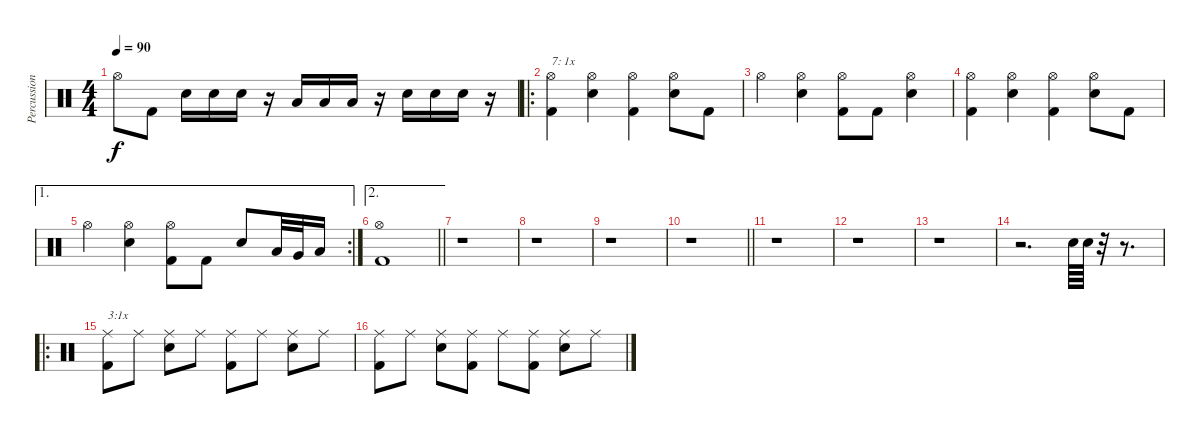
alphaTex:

\track ("Percussion" "Percussion") {instrument percussion}
\staff {score}
\articulation defaults
\ts (4 4)
\tempo 90
\clef neutral
\ks c "Hi-Hat (open)".8{dy f} "Kick (hit) 2".8 "Electric Snare (hit)".16 "Electric Snare (hit)".16 "Electric Snare (hit)".16
r.16 "Low Tom (hit)".16 "Low Tom (hit)".16 "Low Tom (hit)".16 r.16 "Electric Snare (hit)".16 "Electric Snare (hit)".16 "Electric Snare (hit)".16 r.16 |
\ro
("Kick (hit) 2" "Hi-Hat (open)").4{txt "7: 1x"} ("Electric Snare (hit)" "Hi-Hat (open)").4 ("Kick (hit) 2" "Hi-Hat (open)").4 ("Electric Snare (hit)" "Hi-Hat (open)").8 "Kick (hit) 2".8 |
"Hi-Hat (open)".4 ("Electric Snare (hit)" "Hi-Hat (open)").4 ("Kick (hit) 2" "Hi-Hat (open)").8 "Kick (hit) 2".8 ("Electric Snare (hit)" "Hi-Hat (open)").4 |
("Kick (hit) 2" "Hi-Hat (open)").4 ("Electric Snare (hit)" "Hi-Hat (open)").4 ("Kick (hit) 2" "Hi-Hat (open)").4 ("Electric Snare (hit)" "Hi-Hat (open)").8 "Kick (hit) 2".8 |
\ae 1
\rc 2 "Hi-Hat (open)".4
("Electric Snare (hit)" "Hi-Hat (open)").4 ("Kick (hit) 2" "Hi-Hat (open)").8 "Kick (hit) 2".8 "Electric Snare (hit)".8 "Low Tom (hit)".32 "Very Low Tom (hit)".32 "Low Floor Tom (hit)".16 |
\ae 2
\barLineRight lightlight
("Hi-Hat (open)" "Kick (hit) 2").1 |
r.1 |
r.1 |
r.1 |
\barLineRight lightlight
r.1 |
r.1 |
r.1 |
r.1 |
r.2{d} "Electric Snare (hit)".64 "Electric Snare (hit)".64 r.32 r.8{d} |
\ro
("Kick (hit) 2" "Ride (middle)").8{txt "3:1x"} "Ride (middle)".8 ("Electric Snare (hit)" "Ride (middle)").8 "Ride (middle)".8 ("Kick (hit) 2" "Ride (middle)").8 "Ride (middle)".8 ("Electric Snare (hit)" "Ride (middle)").8 "Ride (middle)".8 |
("Kick (hit) 2" "Ride (middle)").8 "Ride (middle)".8 ("Electric Snare (hit)" "Ride (middle)").8 ("Kick (hit) 2" "Ride (middle)").8 "Ride (middle)".8 ("Kick (hit) 2" "Ride (middle)").8 ("Electric Snare (hit)" "Ride (middle)").8 "Ride (middle)".8
